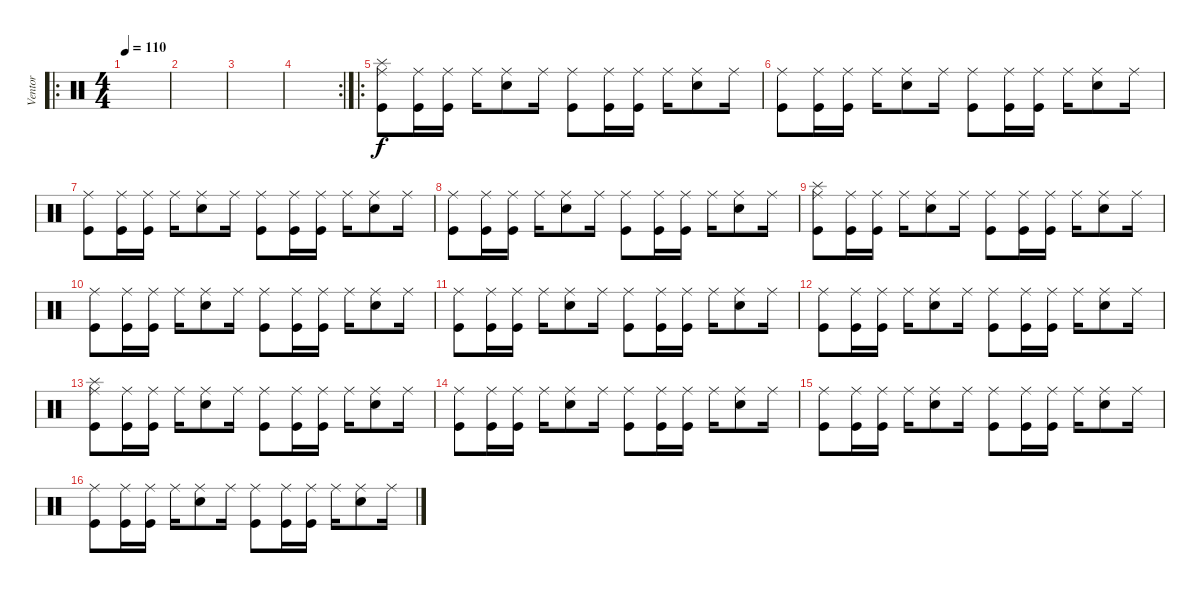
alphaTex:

\track ("Ventor" "Ventor") {instrument percussion}
\staff {score}
\articulation defaults
\ro
\ts (4 4)
\tempo 110
\clef neutral
\ks c
|
|
|
\rc 2
|
\ro
("Kick (hit)" "Ride (middle)" "Splash (hit)").8 ("Kick (hit)" "Ride (middle)").16 ("Kick (hit)" "Ride (middle)").16 "Ride (middle)".16 ("Snare (hit) 2" "Ride (middle)").8 "Ride (middle)".16 ("Kick (hit)" "Ride (middle)").8 ("Kick (hit)" "Ride (middle)").16 ("Kick (hit)" "Ride (middle)").16 "Ride (middle)".16 ("Snare (hit) 2" "Ride (middle)").8 "Ride (middle)".16 |
("Kick (hit)" "Ride (middle)").8 ("Kick (hit)" "Ride (middle)").16 ("Kick (hit)" "Ride (middle)").16 "Ride (middle)".16 ("Snare (hit) 2" "Ride (middle)").8 "Ride (middle)".16 ("Kick (hit)" "Ride (middle)").8 ("Kick (hit)" "Ride (middle)").16 ("Kick (hit)" "Ride (middle)").16 "Ride (middle)".16 ("Snare (hit) 2" "Ride (middle)").8 "Ride (middle)".16 |
("Kick (hit)" "Ride (middle)").8 ("Kick (hit)" "Ride (middle)").16 ("Kick (hit)" "Ride (middle)").16 "Ride (middle)".16 ("Snare (hit) 2" "Ride (middle)").8 "Ride (middle)".16 ("Kick (hit)" "Ride (middle)").8 ("Kick (hit)" "Ride (middle)").16 ("Kick (hit)" "Ride (middle)").16 "Ride (middle)".16 ("Snare (hit) 2" "Ride (middle)").8 "Ride (middle)".16 |
("Kick (hit)" "Ride (middle)").8 ("Kick (hit)" "Ride (middle)").16 ("Kick (hit)" "Ride (middle)").16 "Ride (middle)".16 ("Snare (hit) 2" "Ride (middle)").8 "Ride (middle)".16 ("Kick (hit)" "Ride (middle)").8 ("Kick (hit)" "Ride (middle)").16 ("Kick (hit)" "Ride (middle)").16 "Ride (middle)".16 ("Snare (hit) 2" "Ride (middle)").8 "Ride (middle)".16 |
("Kick (hit)" "Ride (middle)" "Splash (hit)").8 ("Kick (hit)" "Ride (middle)").16 ("Kick (hit)" "Ride (middle)").16 "Ride (middle)".16 ("Snare (hit) 2" "Ride (middle)").8 "Ride (middle)".16 ("Kick (hit)" "Ride (middle)").8 ("Kick (hit)" "Ride (middle)").16 ("Kick (hit)" "Ride (middle)").16 "Ride (middle)".16 ("Snare (hit) 2" "Ride (middle)").8 "Ride (middle)".16 |
("Kick (hit)" "Ride (middle)").8 ("Kick (hit)" "Ride (middle)").16 ("Kick (hit)" "Ride (middle)").16 "Ride (middle)".16 ("Snare (hit) 2" "Ride (middle)").8 "Ride (middle)".16 ("Kick (hit)" "Ride (middle)").8 ("Kick (hit)" "Ride (middle)").16 ("Kick (hit)" "Ride (middle)").16 "Ride (middle)".16 ("Snare (hit) 2" "Ride (middle)").8 "Ride (middle)".16 |
("Kick (hit)" "Ride (middle)").8 ("Kick (hit)" "Ride (middle)").16 ("Kick (hit)" "Ride (middle)").16 "Ride (middle)".16 ("Snare (hit) 2" "Ride (middle)").8 "Ride (middle)".16 ("Kick (hit)" "Ride (middle)").8 ("Kick (hit)" "Ride (middle)").16 ("Kick (hit)" "Ride (middle)").16 "Ride (middle)".16 ("Snare (hit) 2" "Ride (middle)").8 "Ride (middle)".16 |
("Kick (hit)" "Ride (middle)").8 ("Kick (hit)" "Ride (middle)").16 ("Kick (hit)" "Ride (middle)").16 "Ride (middle)".16 ("Snare (hit) 2" "Ride (middle)").8 "Ride (middle)".16 ("Kick (hit)" "Ride (middle)").8 ("Kick (hit)" "Ride (middle)").16 ("Kick (hit)" "Ride (middle)").16 "Ride (middle)".16 ("Snare (hit) 2" "Ride (middle)").8 "Ride (middle)".16 |
("Kick (hit)" "Ride (middle)" "Splash (hit)").8 ("Kick (hit)" "Ride (middle)").16 ("Kick (hit)" "Ride (middle)").16 "Ride (middle)".16 ("Snare (hit) 2" "Ride (middle)").8 "Ride (middle)".16 ("Kick (hit)" "Ride (middle)").8 ("Kick (hit)" "Ride (middle)").16 ("Kick (hit)" "Ride (middle)").16 "Ride (middle)".16 ("Snare (hit) 2" "Ride (middle)").8 "Ride (middle)".16 |
("Kick (hit)" "Ride (middle)").8 ("Kick (hit)" "Ride (middle)").16 ("Kick (hit)" "Ride (middle)").16 "Ride (middle)".16 ("Snare (hit) 2" "Ride (middle)").8 "Ride (middle)".16 ("Kick (hit)" "Ride (middle)").8 ("Kick (hit)" "Ride (middle)").16 ("Kick (hit)" "Ride (middle)").16 "Ride (middle)".16 ("Snare (hit) 2" "Ride (middle)").8 "Ride (middle)".16 |
("Kick (hit)" "Ride (middle)").8 ("Kick (hit)" "Ride (middle)").16 ("Kick (hit)" "Ride (middle)").16 "Ride (middle)".16 ("Snare (hit) 2" "Ride (middle)").8 "Ride (middle)".16 ("Kick (hit)" "Ride (middle)").8 ("Kick (hit)" "Ride (middle)").16 ("Kick (hit)" "Ride (middle)").16 "Ride (middle)".16 ("Snare (hit) 2" "Ride (middle)").8 "Ride (middle)".16 |
("Kick (hit)" "Ride (middle)").8 ("Kick (hit)" "Ride (middle)").16 ("Kick (hit)" "Ride (middle)").16 "Ride (middle)".16 ("Snare (hit) 2" "Ride (middle)").8 "Ride (middle)".16 ("Kick (hit)" "Ride (middle)").8 ("Kick (hit)" "Ride (middle)").16 ("Kick (hit)" "Ride (middle)").16 "Ride (middle)".16 ("Snare (hit) 2" "Ride (middle)").8 "Ride (middle)".16
